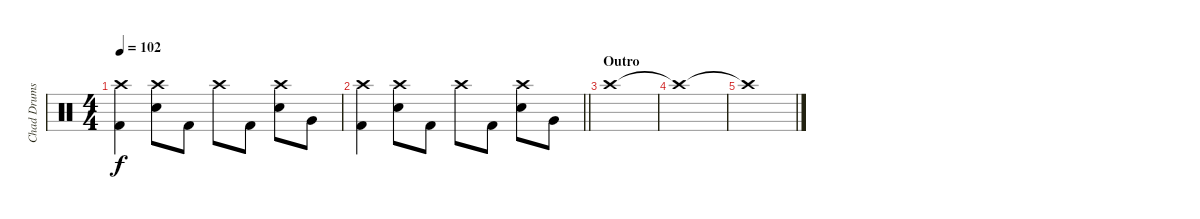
\track ("Chad Drums)" "Chad Drums") {instrument percussion}
\staff {score}
\articulation defaults
\ts (4 4)
\tempo 102
\clef neutral
\ks c
("Crash high (hit)" "Kick (hit) 2").4{dy f} ("Crash high (hit)" "Snare (hit) 2").8 "Kick (hit) 2".8 "Crash high (hit)".8 "Kick (hit) 2".8 ("Crash high (hit)" "Snare (hit) 2").8 "Very Low Tom (hit)".8 |
\barLineRight lightlight
("Crash high (hit)" "Kick (hit) 2").4 ("Crash high (hit)" "Snare (hit) 2").8 "Kick (hit) 2".8 "Crash high (hit)".8 "Kick (hit) 2".8 ("Crash high (hit)" "Snare (hit) 2").8 "Very Low Tom (hit)".8 |
\section ("" "Outro")
"Crash high (hit)".1 |
"Crash high (hit)"{t}.1 |
"Crash high (hit)"{t}.1
